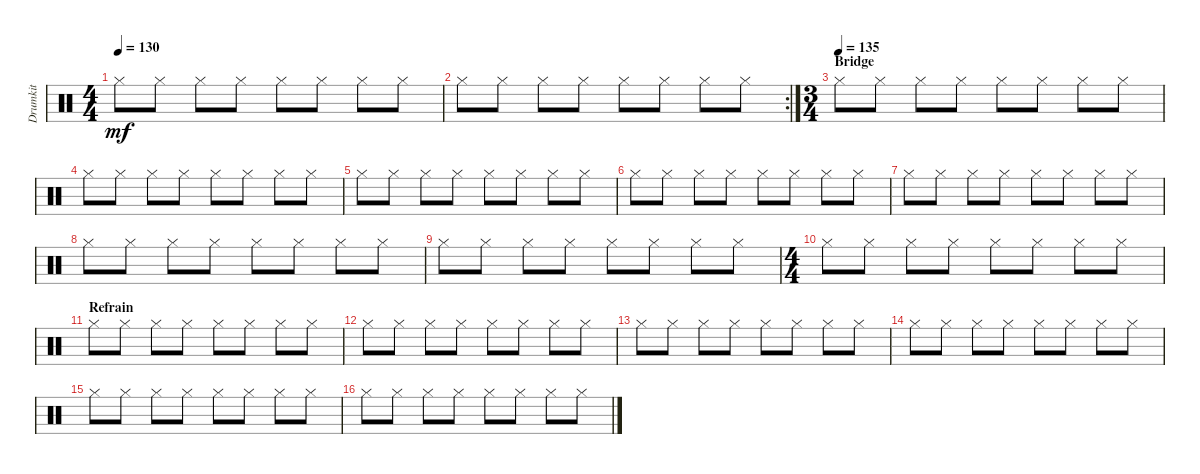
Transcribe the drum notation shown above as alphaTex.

\track ("Drumkit" "Drumkit") {mute instrument percussion}
\staff {score}
\articulation defaults
\ts (4 4)
\tempo 130
\clef neutral
\ks c "Hi-Hat (closed)".8{dy mf} "Hi-Hat (closed)".8 "Hi-Hat (closed)".8 "Hi-Hat (closed)".8 "Hi-Hat (closed)".8 "Hi-Hat (closed)".8 "Hi-Hat (closed)".8 "Hi-Hat (closed)".8
|
\rc 2 "Hi-Hat (closed)".8 "Hi-Hat (closed)".8 "Hi-Hat (closed)".8 "Hi-Hat (closed)".8 "Hi-Hat (closed)".8 "Hi-Hat (closed)".8 "Hi-Hat (closed)".8 "Hi-Hat (closed)".8
|
\ts (3 4)
\section ("" "Bridge")
\tempo (135)
"Hi-Hat (closed)".8 "Hi-Hat (closed)".8 "Hi-Hat (closed)".8 "Hi-Hat (closed)".8 "Hi-Hat (closed)".8 "Hi-Hat (closed)".8 "Hi-Hat (closed)".8 "Hi-Hat (closed)".8 |
"Hi-Hat (closed)".8 "Hi-Hat (closed)".8 "Hi-Hat (closed)".8 "Hi-Hat (closed)".8 "Hi-Hat (closed)".8 "Hi-Hat (closed)".8 "Hi-Hat (closed)".8 "Hi-Hat (closed)".8 |
"Hi-Hat (closed)".8 "Hi-Hat (closed)".8 "Hi-Hat (closed)".8 "Hi-Hat (closed)".8 "Hi-Hat (closed)".8 "Hi-Hat (closed)".8 "Hi-Hat (closed)".8 "Hi-Hat (closed)".8 |
"Hi-Hat (closed)".8 "Hi-Hat (closed)".8 "Hi-Hat (closed)".8 "Hi-Hat (closed)".8 "Hi-Hat (closed)".8 "Hi-Hat (closed)".8 "Hi-Hat (closed)".8 "Hi-Hat (closed)".8 |
"Hi-Hat (closed)".8 "Hi-Hat (closed)".8 "Hi-Hat (closed)".8 "Hi-Hat (closed)".8 "Hi-Hat (closed)".8 "Hi-Hat (closed)".8 "Hi-Hat (closed)".8 "Hi-Hat (closed)".8 |
"Hi-Hat (closed)".8 "Hi-Hat (closed)".8 "Hi-Hat (closed)".8 "Hi-Hat (closed)".8 "Hi-Hat (closed)".8 "Hi-Hat (closed)".8 "Hi-Hat (closed)".8 "Hi-Hat (closed)".8 |
"Hi-Hat (closed)".8 "Hi-Hat (closed)".8 "Hi-Hat (closed)".8 "Hi-Hat (closed)".8 "Hi-Hat (closed)".8 "Hi-Hat (closed)".8 "Hi-Hat (closed)".8 "Hi-Hat (closed)".8 |
\ts (4 4)
"Hi-Hat (closed)".8 "Hi-Hat (closed)".8 "Hi-Hat (closed)".8 "Hi-Hat (closed)".8 "Hi-Hat (closed)".8 "Hi-Hat (closed)".8 "Hi-Hat (closed)".8 "Hi-Hat (closed)".8 |
\section ("" "Refrain")
"Hi-Hat (closed)".8 "Hi-Hat (closed)".8 "Hi-Hat (closed)".8 "Hi-Hat (closed)".8 "Hi-Hat (closed)".8 "Hi-Hat (closed)".8 "Hi-Hat (closed)".8 "Hi-Hat (closed)".8 |
"Hi-Hat (closed)".8 "Hi-Hat (closed)".8 "Hi-Hat (closed)".8 "Hi-Hat (closed)".8 "Hi-Hat (closed)".8 "Hi-Hat (closed)".8 "Hi-Hat (closed)".8 "Hi-Hat (closed)".8 |
"Hi-Hat (closed)".8 "Hi-Hat (closed)".8 "Hi-Hat (closed)".8 "Hi-Hat (closed)".8 "Hi-Hat (closed)".8 "Hi-Hat (closed)".8 "Hi-Hat (closed)".8 "Hi-Hat (closed)".8 |
"Hi-Hat (closed)".8 "Hi-Hat (closed)".8 "Hi-Hat (closed)".8 "Hi-Hat (closed)".8 "Hi-Hat (closed)".8 "Hi-Hat (closed)".8 "Hi-Hat (closed)".8 "Hi-Hat (closed)".8 |
"Hi-Hat (closed)".8 "Hi-Hat (closed)".8 "Hi-Hat (closed)".8 "Hi-Hat (closed)".8 "Hi-Hat (closed)".8 "Hi-Hat (closed)".8 "Hi-Hat (closed)".8 "Hi-Hat (closed)".8 |
"Hi-Hat (closed)".8 "Hi-Hat (closed)".8 "Hi-Hat (closed)".8 "Hi-Hat (closed)".8 "Hi-Hat (closed)".8 "Hi-Hat (closed)".8 "Hi-Hat (closed)".8 "Hi-Hat (closed)".8
